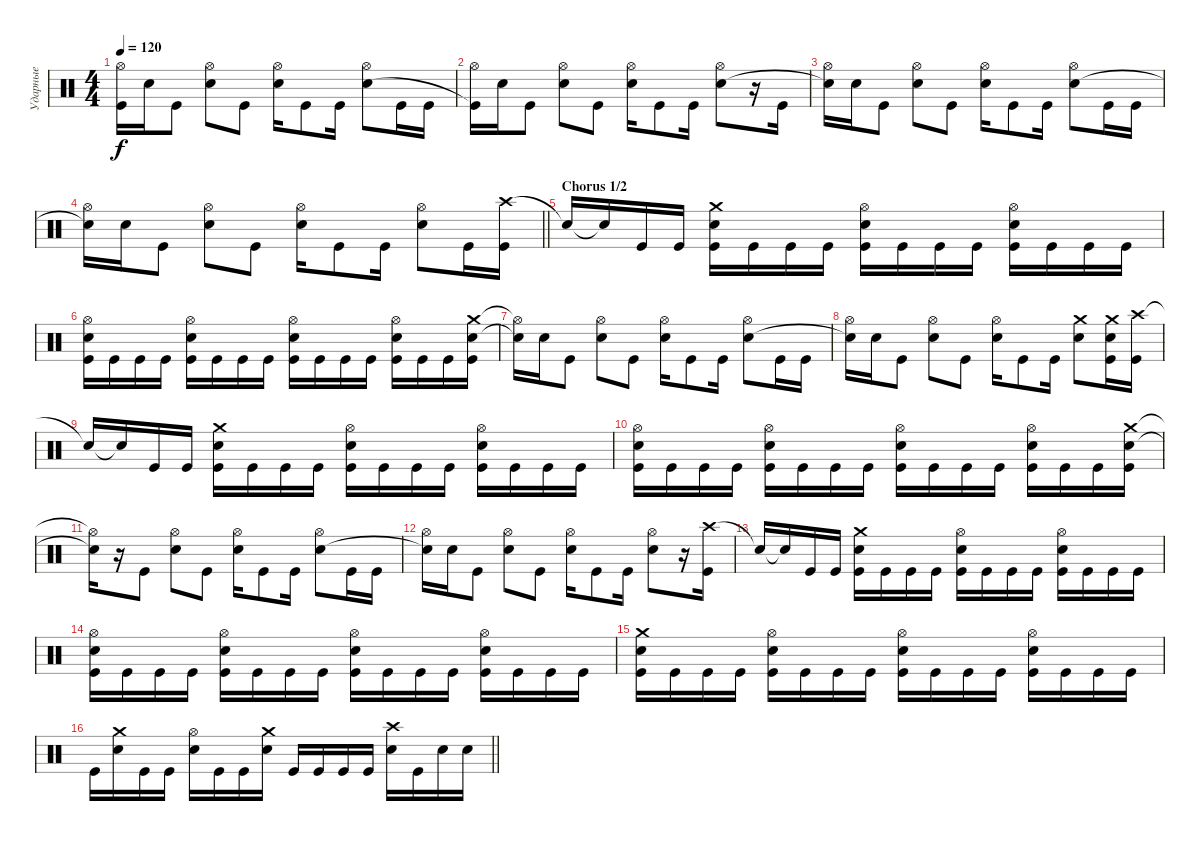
\track ("Ударные" "Ударные") {instrument percussion}
\staff {score}
\articulation defaults
\ts (4 4)
\tempo 120
\clef neutral
\ks c
("Hi-Hat (open)" "Kick (hit)"{t}).16{dy f} "Electric Snare (hit)".16 "Kick (hit)".8 ("Hi-Hat (open)" "Electric Snare (hit)").8 "Kick (hit)".8 ("Hi-Hat (open)" "Electric Snare (hit)").16 "Kick (hit)".8 "Kick (hit)".16 ("Hi-Hat (open)" "Electric Snare (hit)").8 "Kick (hit)".16 "Kick (hit)".16 |
("Hi-Hat (open)" "Kick (hit)"{t}).16 "Electric Snare (hit)".16 "Kick (hit)".8 ("Hi-Hat (open)" "Electric Snare (hit)").8 "Kick (hit)".8 ("Hi-Hat (open)" "Electric Snare (hit)").16 "Kick (hit)".8 "Kick (hit)".16 ("Hi-Hat (open)" "Electric Snare (hit)").8 r.16 "Kick (hit)".16 |
("Hi-Hat (open)" "Snare (hit)"{t}).16 "Electric Snare (hit)".16 "Kick (hit)".8 ("Hi-Hat (open)" "Electric Snare (hit)").8 "Kick (hit)".8 ("Hi-Hat (open)" "Electric Snare (hit)").16 "Kick (hit)".8 "Kick (hit)".16 ("Hi-Hat (open)" "Electric Snare (hit)").8 "Kick (hit)".16 "Kick (hit)".16 |
\barLineRight lightlight
("Hi-Hat (open)" "Snare (hit)"{t}).16 "Electric Snare (hit)".16 "Kick (hit)".8 ("Hi-Hat (open)" "Electric Snare (hit)").8 "Kick (hit)".8 ("Hi-Hat (open)" "Electric Snare (hit)").16 "Kick (hit)".8 "Kick (hit)".16 ("Hi-Hat (open)" "Electric Snare (hit)").8 "Kick (hit)".16 ("Crash high (hit)" "Kick (hit)").16 |
\section ("" "Chorus 1/2")
"Snare (hit)"{t}.16 "Snare (hit)"{t}.16 "Kick (hit)".16 "Kick (hit)".16 ("Crash medium (hit)" "Electric Snare (hit)" "Kick (hit)").16 "Kick (hit)".16 "Kick (hit)".16 "Kick (hit)".16 ("Hi-Hat (open)" "Electric Snare (hit)" "Kick (hit)").16 "Kick (hit)".16 "Kick (hit)".16 "Kick (hit)".16 ("Hi-Hat (open)" "Electric Snare (hit)" "Kick (hit)").16 "Kick (hit)".16 "Kick (hit)".16 "Kick (hit)".16 |
("Hi-Hat (open)" "Electric Snare (hit)" "Kick (hit)").16 "Kick (hit)".16 "Kick (hit)".16 "Kick (hit)".16 ("Hi-Hat (open)" "Electric Snare (hit)" "Kick (hit)").16 "Kick (hit)".16 "Kick (hit)".16 "Kick (hit)".16 ("Hi-Hat (open)" "Electric Snare (hit)" "Kick (hit)").16 "Kick (hit)".16 "Kick (hit)".16 "Kick (hit)".16 ("Hi-Hat (open)" "Electric Snare (hit)" "Kick (hit)").16 "Kick (hit)".16 "Kick (hit)".16 ("Crash medium (hit)" "Electric Snare (hit)" "Kick (hit)").16 |
("Hi-Hat (open)"{t} "Snare (hit)"{t}).16 "Electric Snare (hit)".16 "Kick (hit)".8 ("Hi-Hat (open)" "Electric Snare (hit)").8 "Kick (hit)".8 ("Hi-Hat (open)" "Electric Snare (hit)").16 "Kick (hit)".8 "Kick (hit)".16 ("Hi-Hat (open)" "Electric Snare (hit)").8 "Kick (hit)".16 "Kick (hit)".16 |
("Hi-Hat (open)" "Snare (hit)"{t}).16 "Electric Snare (hit)".16 "Kick (hit)".8 ("Hi-Hat (open)" "Electric Snare (hit)").8 "Kick (hit)".8 ("Hi-Hat (open)" "Electric Snare (hit)").16 "Kick (hit)".8 "Kick (hit)".16 ("Crash medium (hit)" "Electric Snare (hit)").8 ("Crash medium (hit)" "Electric Snare (hit)" "Kick (hit)").16 ("Crash high (hit)" "Kick (hit)").16 |
"Snare (hit)"{t}.16 "Snare (hit)"{t}.16 "Kick (hit)".16 "Kick (hit)".16 ("Crash medium (hit)" "Electric Snare (hit)" "Kick (hit)").16 "Kick (hit)".16 "Kick (hit)".16 "Kick (hit)".16 ("Hi-Hat (open)" "Electric Snare (hit)" "Kick (hit)").16 "Kick (hit)".16 "Kick (hit)".16 "Kick (hit)".16 ("Hi-Hat (open)" "Electric Snare (hit)" "Kick (hit)").16 "Kick (hit)".16 "Kick (hit)".16 "Kick (hit)".16 |
("Hi-Hat (open)" "Electric Snare (hit)" "Kick (hit)").16 "Kick (hit)".16 "Kick (hit)".16 "Kick (hit)".16 ("Hi-Hat (open)" "Electric Snare (hit)" "Kick (hit)").16 "Kick (hit)".16 "Kick (hit)".16 "Kick (hit)".16 ("Hi-Hat (open)" "Electric Snare (hit)" "Kick (hit)").16 "Kick (hit)".16 "Kick (hit)".16 "Kick (hit)".16 ("Hi-Hat (open)" "Electric Snare (hit)" "Kick (hit)").16 "Kick (hit)".16 "Kick (hit)".16 ("Crash medium (hit)" "Electric Snare (hit)" "Kick (hit)").16 |
("Hi-Hat (open)"{t} "Snare (hit)"{t}).16 r.16 "Kick (hit)".8 ("Hi-Hat (open)" "Electric Snare (hit)").8 "Kick (hit)".8 ("Hi-Hat (open)" "Electric Snare (hit)").16 "Kick (hit)".8 "Kick (hit)".16 ("Hi-Hat (open)" "Electric Snare (hit)").8 "Kick (hit)".16 "Kick (hit)".16 |
("Hi-Hat (open)" "Snare (hit)"{t}).16 "Electric Snare (hit)".16 "Kick (hit)".8 ("Hi-Hat (open)" "Electric Snare (hit)").8 "Kick (hit)".8 ("Hi-Hat (open)" "Electric Snare (hit)").16 "Kick (hit)".8 "Kick (hit)".16 ("Hi-Hat (open)" "Electric Snare (hit)").8 r.16 ("Crash high (hit)" "Kick (hit)").16 |
"Snare (hit)"{t}.16 "Snare (hit)"{t}.16 "Kick (hit)".16 "Kick (hit)".16 ("Crash medium (hit)" "Electric Snare (hit)" "Kick (hit)").16 "Kick (hit)".16 "Kick (hit)".16 "Kick (hit)".16 ("Hi-Hat (open)" "Electric Snare (hit)" "Kick (hit)").16 "Kick (hit)".16 "Kick (hit)".16 "Kick (hit)".16 ("Hi-Hat (open)" "Electric Snare (hit)" "Kick (hit)").16 "Kick (hit)".16 "Kick (hit)".16 "Kick (hit)".16 |
("Hi-Hat (open)" "Electric Snare (hit)" "Kick (hit)").16 "Kick (hit)".16 "Kick (hit)".16 "Kick (hit)".16 ("Hi-Hat (open)" "Electric Snare (hit)" "Kick (hit)").16 "Kick (hit)".16 "Kick (hit)".16 "Kick (hit)".16 ("Hi-Hat (open)" "Electric Snare (hit)" "Kick (hit)").16 "Kick (hit)".16 "Kick (hit)".16 "Kick (hit)".16 ("Hi-Hat (open)" "Electric Snare (hit)" "Kick (hit)").16 "Kick (hit)".16 "Kick (hit)".16 "Kick (hit)".16 |
("Crash medium (hit)" "Electric Snare (hit)" "Kick (hit)").16 "Kick (hit)".16 "Kick (hit)".16 "Kick (hit)".16 ("Hi-Hat (open)" "Electric Snare (hit)" "Kick (hit)").16 "Kick (hit)".16 "Kick (hit)".16 "Kick (hit)".16 ("Hi-Hat (open)" "Electric Snare (hit)" "Kick (hit)").16 "Kick (hit)".16 "Kick (hit)".16 "Kick (hit)".16 ("Hi-Hat (open)" "Electric Snare (hit)" "Kick (hit)").16 "Kick (hit)".16 "Kick (hit)".16 "Kick (hit)".16 |
\barLineRight lightlight "Kick (hit)".16
("Crash medium (hit)" "Electric Snare (hit)").16 "Kick (hit)".16 "Kick (hit)".16 ("Hi-Hat (open)" "Electric Snare (hit)").16 "Kick (hit)".16 "Kick (hit)".16 ("Crash medium (hit)" "Electric Snare (hit)").16 "Kick (hit)".16 "Kick (hit)".16 "Kick (hit)".16 "Kick (hit)".16 ("Crash high (hit)" "Electric Snare (hit)").16 "Kick (hit)".16 "Electric Snare (hit)".16 "Electric Snare (hit)".16
